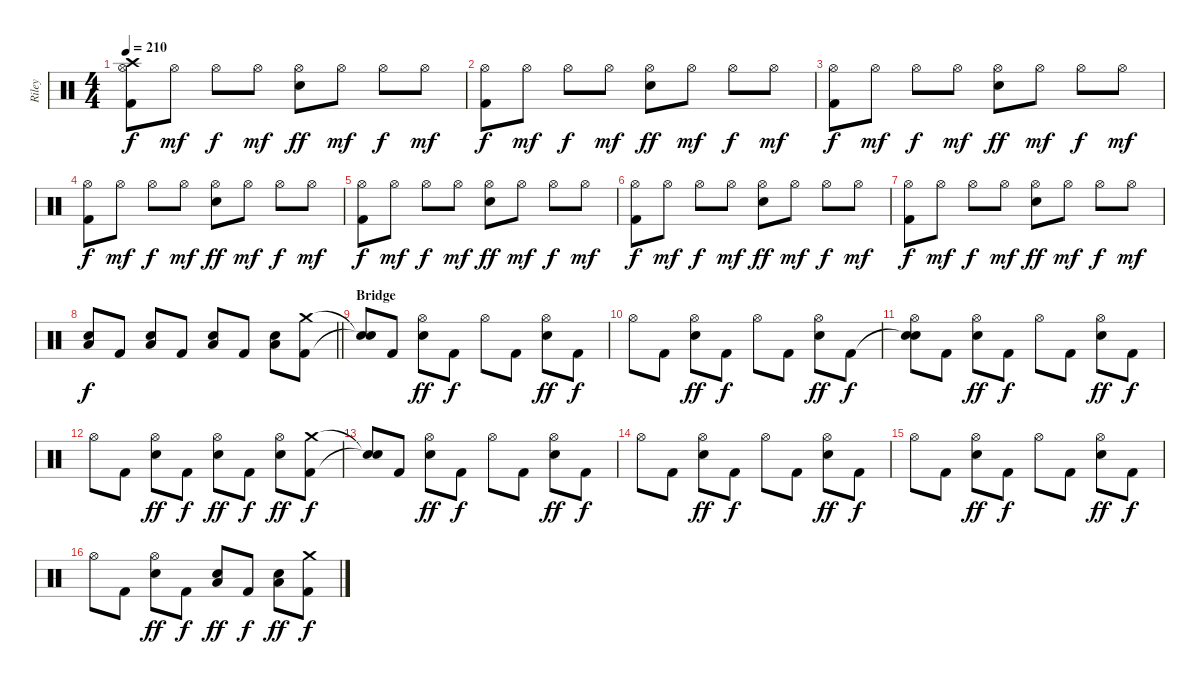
\track ("Riley" "Riley") {instrument percussion}
\staff {score}
\articulation defaults
\ts (4 4)
\tempo 210
\clef neutral
\ks c
("Crash high (hit)" "Hi-Hat (open)" "Kick (hit) 2").8{dy f} "Hi-Hat (open)".8{dy mf} "Hi-Hat (open)".8{dy f} "Hi-Hat (open)".8{dy mf} ("Hi-Hat (open)" "Electric Snare (hit)").8{dy ff} "Hi-Hat (open)".8{dy mf} "Hi-Hat (open)".8{dy f} "Hi-Hat (open)".8{dy mf} |
("Hi-Hat (open)" "Kick (hit) 2").8{dy f} "Hi-Hat (open)".8{dy mf} "Hi-Hat (open)".8{dy f} "Hi-Hat (open)".8{dy mf} ("Hi-Hat (open)" "Electric Snare (hit)").8{dy ff} "Hi-Hat (open)".8{dy mf} "Hi-Hat (open)".8{dy f} "Hi-Hat (open)".8{dy mf} |
("Hi-Hat (open)" "Kick (hit) 2").8{dy f} "Hi-Hat (open)".8{dy mf} "Hi-Hat (open)".8{dy f} "Hi-Hat (open)".8{dy mf} ("Hi-Hat (open)" "Electric Snare (hit)").8{dy ff} "Hi-Hat (open)".8{dy mf} "Hi-Hat (open)".8{dy f} "Hi-Hat (open)".8{dy mf} |
("Hi-Hat (open)" "Kick (hit) 2").8{dy f} "Hi-Hat (open)".8{dy mf} "Hi-Hat (open)".8{dy f} "Hi-Hat (open)".8{dy mf} ("Hi-Hat (open)" "Electric Snare (hit)").8{dy ff} "Hi-Hat (open)".8{dy mf} "Hi-Hat (open)".8{dy f} "Hi-Hat (open)".8{dy mf} |
("Hi-Hat (open)" "Kick (hit) 2").8{dy f} "Hi-Hat (open)".8{dy mf} "Hi-Hat (open)".8{dy f} "Hi-Hat (open)".8{dy mf} ("Hi-Hat (open)" "Electric Snare (hit)").8{dy ff} "Hi-Hat (open)".8{dy mf} "Hi-Hat (open)".8{dy f} "Hi-Hat (open)".8{dy mf} |
("Hi-Hat (open)" "Kick (hit) 2").8{dy f} "Hi-Hat (open)".8{dy mf} "Hi-Hat (open)".8{dy f} "Hi-Hat (open)".8{dy mf} ("Hi-Hat (open)" "Electric Snare (hit)").8{dy ff} "Hi-Hat (open)".8{dy mf} "Hi-Hat (open)".8{dy f} "Hi-Hat (open)".8{dy mf} |
("Hi-Hat (open)" "Kick (hit) 2").8{dy f} "Hi-Hat (open)".8{dy mf} "Hi-Hat (open)".8{dy f} "Hi-Hat (open)".8{dy mf} ("Hi-Hat (open)" "Electric Snare (hit)").8{dy ff} "Hi-Hat (open)".8{dy mf} "Hi-Hat (open)".8{dy f} "Hi-Hat (open)".8{dy mf} |
\barLineRight lightlight
("Low Tom (hit)" "Electric Snare (hit)").8{dy f} "Kick (hit) 2".8 ("Low Tom (hit)" "Electric Snare (hit)").8 "Kick (hit) 2".8 ("Low Tom (hit)" "Electric Snare (hit)").8 "Kick (hit) 2".8 ("Low Tom (hit)" "Electric Snare (hit)").8 ("Crash medium (hit)" "Kick (hit) 2").8 |
\section ("" "Bridge")
("Snare (hit)"{t} "Snare (hit)"{t}).8 "Kick (hit) 2".8 ("Hi-Hat (open)" "Electric Snare (hit)").8{dy ff} "Kick (hit) 2".8{dy f} "Hi-Hat (open)".8 "Kick (hit) 2".8 ("Hi-Hat (open)" "Electric Snare (hit)").8{dy ff} "Kick (hit) 2".8{dy f} |
"Hi-Hat (open)".8 "Kick (hit) 2".8 ("Hi-Hat (open)" "Electric Snare (hit)").8{dy ff} "Kick (hit) 2".8{dy f} "Hi-Hat (open)".8 "Kick (hit) 2".8 ("Hi-Hat (open)" "Electric Snare (hit)").8{dy ff} "Kick (hit) 2".8{dy f} |
("Snare (hit)"{t} "Hi-Hat (open)" "Snare (hit)").8 "Kick (hit) 2".8 ("Hi-Hat (open)" "Electric Snare (hit)").8{dy ff} "Kick (hit) 2".8{dy f} "Hi-Hat (open)".8 "Kick (hit) 2".8 ("Hi-Hat (open)" "Electric Snare (hit)").8{dy ff} "Kick (hit) 2".8{dy f} |
"Hi-Hat (open)".8 "Kick (hit) 2".8 ("Hi-Hat (open)" "Electric Snare (hit)").8{dy ff} "Kick (hit) 2".8{dy f} ("Hi-Hat (open)" "Electric Snare (hit)").8{dy ff} "Kick (hit) 2".8{dy f} ("Hi-Hat (open)" "Electric Snare (hit)").8{dy ff} ("Crash medium (hit)" "Kick (hit) 2").8{dy f} |
("Snare (hit)"{t} "Snare (hit)"{t}).8 "Kick (hit) 2".8 ("Hi-Hat (open)" "Electric Snare (hit)").8{dy ff} "Kick (hit) 2".8{dy f} "Hi-Hat (open)".8 "Kick (hit) 2".8 ("Hi-Hat (open)" "Electric Snare (hit)").8{dy ff} "Kick (hit) 2".8{dy f} |
"Hi-Hat (open)".8 "Kick (hit) 2".8 ("Hi-Hat (open)" "Electric Snare (hit)").8{dy ff} "Kick (hit) 2".8{dy f} "Hi-Hat (open)".8 "Kick (hit) 2".8 ("Hi-Hat (open)" "Electric Snare (hit)").8{dy ff} "Kick (hit) 2".8{dy f} |
"Hi-Hat (open)".8 "Kick (hit) 2".8 ("Hi-Hat (open)" "Electric Snare (hit)").8{dy ff} "Kick (hit) 2".8{dy f} "Hi-Hat (open)".8 "Kick (hit) 2".8 ("Hi-Hat (open)" "Electric Snare (hit)").8{dy ff} "Kick (hit) 2".8{dy f} |
"Hi-Hat (open)".8 "Kick (hit) 2".8 ("Hi-Hat (open)" "Electric Snare (hit)").8{dy ff} "Kick (hit) 2".8{dy f} ("Low Floor Tom (hit)" "Electric Snare (hit)").8{dy ff} "Kick (hit) 2".8{dy f} ("Low Floor Tom (hit)" "Electric Snare (hit)").8{dy ff} ("Crash medium (hit)" "Kick (hit) 2").8{dy f}
